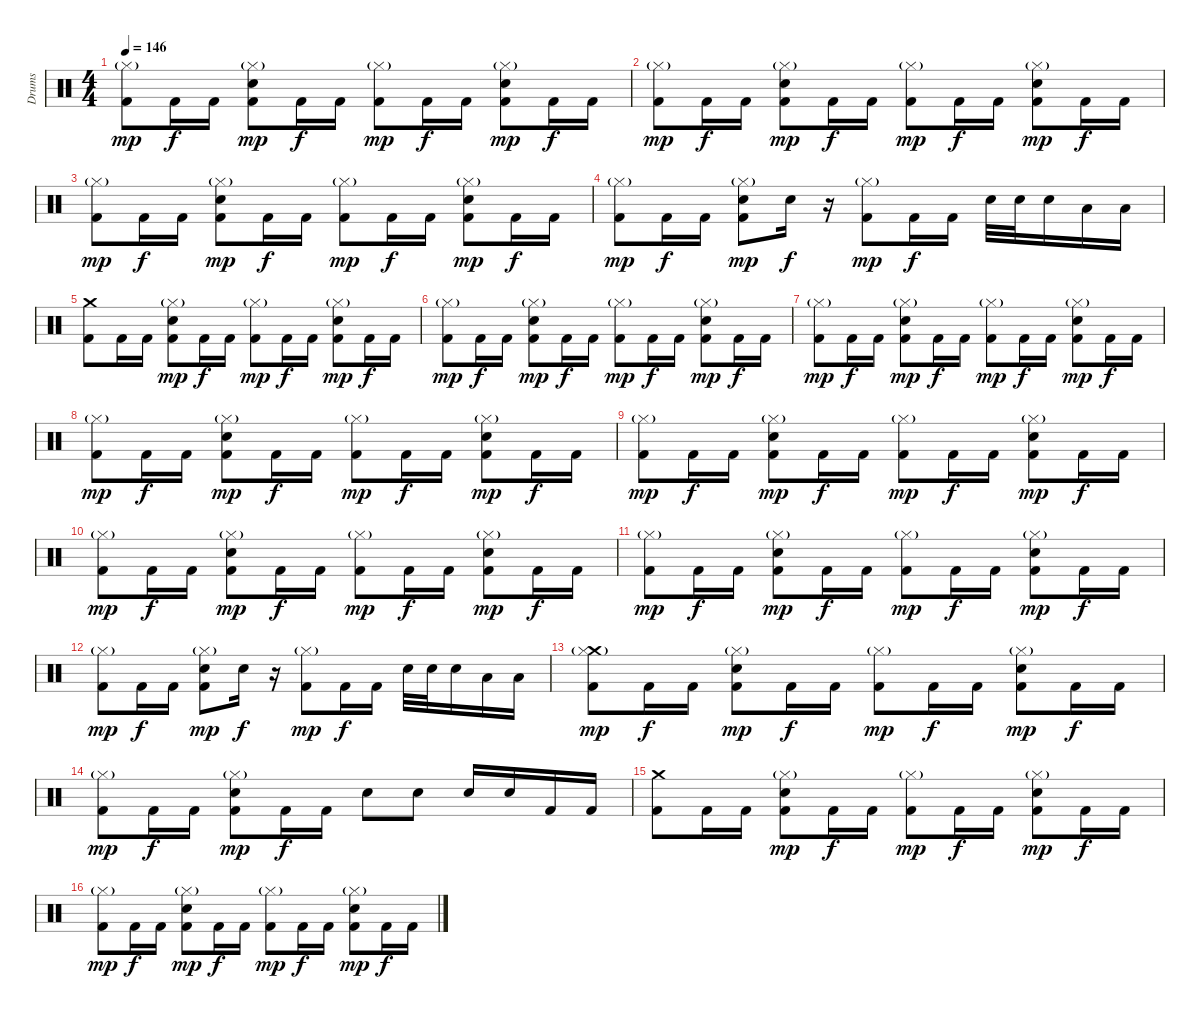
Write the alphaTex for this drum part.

\track ("Drums" "Drums") {instrument percussion}
\staff {score}
\articulation defaults
\ts (4 4)
\tempo 146
\clef neutral
\ks c
("Hi-Hat (closed)"{g} "Kick (hit) 2").8{dy mp} "Kick (hit) 2".16{dy f} "Kick (hit) 2".16 ("Snare (hit) 2" "Hi-Hat (closed)"{g} "Kick (hit) 2").8{dy mp} "Kick (hit) 2".16{dy f} "Kick (hit) 2".16 ("Hi-Hat (closed)"{g} "Kick (hit) 2").8{dy mp} "Kick (hit) 2".16{dy f} "Kick (hit) 2".16 ("Snare (hit) 2" "Hi-Hat (closed)"{g} "Kick (hit) 2").8{dy mp} "Kick (hit) 2".16{dy f} "Kick (hit) 2".16 |
("Hi-Hat (closed)"{g} "Kick (hit) 2").8{dy mp} "Kick (hit) 2".16{dy f} "Kick (hit) 2".16 ("Snare (hit) 2" "Hi-Hat (closed)"{g} "Kick (hit) 2").8{dy mp} "Kick (hit) 2".16{dy f} "Kick (hit) 2".16 ("Hi-Hat (closed)"{g} "Kick (hit) 2").8{dy mp} "Kick (hit) 2".16{dy f} "Kick (hit) 2".16 ("Snare (hit) 2" "Hi-Hat (closed)"{g} "Kick (hit) 2").8{dy mp} "Kick (hit) 2".16{dy f} "Kick (hit) 2".16 |
("Hi-Hat (closed)"{g} "Kick (hit) 2").8{dy mp} "Kick (hit) 2".16{dy f} "Kick (hit) 2".16 ("Snare (hit) 2" "Hi-Hat (closed)"{g} "Kick (hit) 2").8{dy mp} "Kick (hit) 2".16{dy f} "Kick (hit) 2".16 ("Hi-Hat (closed)"{g} "Kick (hit) 2").8{dy mp} "Kick (hit) 2".16{dy f} "Kick (hit) 2".16 ("Snare (hit) 2" "Hi-Hat (closed)"{g} "Kick (hit) 2").8{dy mp} "Kick (hit) 2".16{dy f} "Kick (hit) 2".16 |
("Hi-Hat (closed)"{g} "Kick (hit) 2").8{dy mp} "Kick (hit) 2".16{dy f} "Kick (hit) 2".16 ("Snare (hit) 2" "Hi-Hat (closed)"{g} "Kick (hit) 2").8{dy mp} "Snare (hit) 2".16{dy f} r.16 ("Hi-Hat (closed)"{g} "Kick (hit) 2").8{dy mp} "Kick (hit) 2".16{dy f} "Kick (hit) 2".16 "Snare (hit) 2".32 "Snare (hit) 2".32 "Snare (hit) 2".16 "Low Tom (hit)".16 "Low Tom (hit)".16 |
("Crash medium (hit)" "Kick (hit) 2").8 "Kick (hit) 2".16 "Kick (hit) 2".16 ("Snare (hit) 2" "Hi-Hat (closed)"{g} "Kick (hit) 2").8{dy mp} "Kick (hit) 2".16{dy f} "Kick (hit) 2".16 ("Hi-Hat (closed)"{g} "Kick (hit) 2").8{dy mp} "Kick (hit) 2".16{dy f} "Kick (hit) 2".16 ("Snare (hit) 2" "Hi-Hat (closed)"{g} "Kick (hit) 2").8{dy mp} "Kick (hit) 2".16{dy f} "Kick (hit) 2".16 |
("Hi-Hat (closed)"{g} "Kick (hit) 2").8{dy mp} "Kick (hit) 2".16{dy f} "Kick (hit) 2".16 ("Snare (hit) 2" "Hi-Hat (closed)"{g} "Kick (hit) 2").8{dy mp} "Kick (hit) 2".16{dy f} "Kick (hit) 2".16 ("Hi-Hat (closed)"{g} "Kick (hit) 2").8{dy mp} "Kick (hit) 2".16{dy f} "Kick (hit) 2".16 ("Snare (hit) 2" "Hi-Hat (closed)"{g} "Kick (hit) 2").8{dy mp} "Kick (hit) 2".16{dy f} "Kick (hit) 2".16 |
("Hi-Hat (closed)"{g} "Kick (hit) 2").8{dy mp} "Kick (hit) 2".16{dy f} "Kick (hit) 2".16 ("Snare (hit) 2" "Hi-Hat (closed)"{g} "Kick (hit) 2").8{dy mp} "Kick (hit) 2".16{dy f} "Kick (hit) 2".16 ("Hi-Hat (closed)"{g} "Kick (hit) 2").8{dy mp} "Kick (hit) 2".16{dy f} "Kick (hit) 2".16 ("Snare (hit) 2" "Hi-Hat (closed)"{g} "Kick (hit) 2").8{dy mp} "Kick (hit) 2".16{dy f} "Kick (hit) 2".16 |
("Hi-Hat (closed)"{g} "Kick (hit) 2").8{dy mp} "Kick (hit) 2".16{dy f} "Kick (hit) 2".16 ("Snare (hit) 2" "Hi-Hat (closed)"{g} "Kick (hit) 2").8{dy mp} "Kick (hit) 2".16{dy f} "Kick (hit) 2".16 ("Hi-Hat (closed)"{g} "Kick (hit) 2").8{dy mp} "Kick (hit) 2".16{dy f} "Kick (hit) 2".16 ("Snare (hit) 2" "Hi-Hat (closed)"{g} "Kick (hit) 2").8{dy mp} "Kick (hit) 2".16{dy f} "Kick (hit) 2".16 |
("Hi-Hat (closed)"{g} "Kick (hit) 2").8{dy mp} "Kick (hit) 2".16{dy f} "Kick (hit) 2".16 ("Snare (hit) 2" "Hi-Hat (closed)"{g} "Kick (hit) 2").8{dy mp} "Kick (hit) 2".16{dy f} "Kick (hit) 2".16 ("Hi-Hat (closed)"{g} "Kick (hit) 2").8{dy mp} "Kick (hit) 2".16{dy f} "Kick (hit) 2".16 ("Snare (hit) 2" "Hi-Hat (closed)"{g} "Kick (hit) 2").8{dy mp} "Kick (hit) 2".16{dy f} "Kick (hit) 2".16 |
("Hi-Hat (closed)"{g} "Kick (hit) 2").8{dy mp} "Kick (hit) 2".16{dy f} "Kick (hit) 2".16 ("Snare (hit) 2" "Hi-Hat (closed)"{g} "Kick (hit) 2").8{dy mp} "Kick (hit) 2".16{dy f} "Kick (hit) 2".16 ("Hi-Hat (closed)"{g} "Kick (hit) 2").8{dy mp} "Kick (hit) 2".16{dy f} "Kick (hit) 2".16 ("Snare (hit) 2" "Hi-Hat (closed)"{g} "Kick (hit) 2").8{dy mp} "Kick (hit) 2".16{dy f} "Kick (hit) 2".16 |
("Hi-Hat (closed)"{g} "Kick (hit) 2").8{dy mp} "Kick (hit) 2".16{dy f} "Kick (hit) 2".16 ("Snare (hit) 2" "Hi-Hat (closed)"{g} "Kick (hit) 2").8{dy mp} "Kick (hit) 2".16{dy f} "Kick (hit) 2".16 ("Hi-Hat (closed)"{g} "Kick (hit) 2").8{dy mp} "Kick (hit) 2".16{dy f} "Kick (hit) 2".16 ("Snare (hit) 2" "Hi-Hat (closed)"{g} "Kick (hit) 2").8{dy mp} "Kick (hit) 2".16{dy f} "Kick (hit) 2".16 |
("Hi-Hat (closed)"{g} "Kick (hit) 2").8{dy mp} "Kick (hit) 2".16{dy f} "Kick (hit) 2".16 ("Snare (hit) 2" "Hi-Hat (closed)"{g} "Kick (hit) 2").8{dy mp} "Snare (hit) 2".16{dy f} r.16 ("Hi-Hat (closed)"{g} "Kick (hit) 2").8{dy mp} "Kick (hit) 2".16{dy f} "Kick (hit) 2".16 "Snare (hit) 2".32 "Snare (hit) 2".32 "Snare (hit) 2".16 "Low Tom (hit)".16 "Low Tom (hit)".16 |
("Crash medium (hit)" "Hi-Hat (closed)"{g} "Kick (hit) 2").8{dy mp} "Kick (hit) 2".16{dy f} "Kick (hit) 2".16 ("Snare (hit) 2" "Hi-Hat (closed)"{g} "Kick (hit) 2").8{dy mp} "Kick (hit) 2".16{dy f} "Kick (hit) 2".16 ("Hi-Hat (closed)"{g} "Kick (hit) 2").8{dy mp} "Kick (hit) 2".16{dy f} "Kick (hit) 2".16 ("Snare (hit) 2" "Hi-Hat (closed)"{g} "Kick (hit) 2").8{dy mp} "Kick (hit) 2".16{dy f} "Kick (hit) 2".16 |
("Hi-Hat (closed)"{g} "Kick (hit) 2").8{dy mp} "Kick (hit) 2".16{dy f} "Kick (hit) 2".16 ("Snare (hit) 2" "Hi-Hat (closed)"{g} "Kick (hit) 2").8{dy mp} "Kick (hit) 2".16{dy f} "Kick (hit) 2".16 "Snare (hit) 2".8 "Snare (hit) 2".8 "Snare (hit) 2".16 "Snare (hit) 2".16 "Kick (hit) 2".16 "Kick (hit) 2".16 |
("Crash medium (hit)" "Kick (hit) 2").8 "Kick (hit) 2".16 "Kick (hit) 2".16 ("Snare (hit) 2" "Hi-Hat (closed)"{g} "Kick (hit) 2").8{dy mp} "Kick (hit) 2".16{dy f} "Kick (hit) 2".16 ("Hi-Hat (closed)"{g} "Kick (hit) 2").8{dy mp} "Kick (hit) 2".16{dy f} "Kick (hit) 2".16 ("Snare (hit) 2" "Hi-Hat (closed)"{g} "Kick (hit) 2").8{dy mp} "Kick (hit) 2".16{dy f} "Kick (hit) 2".16 |
("Hi-Hat (closed)"{g} "Kick (hit) 2").8{dy mp} "Kick (hit) 2".16{dy f} "Kick (hit) 2".16 ("Snare (hit) 2" "Hi-Hat (closed)"{g} "Kick (hit) 2").8{dy mp} "Kick (hit) 2".16{dy f} "Kick (hit) 2".16 ("Hi-Hat (closed)"{g} "Kick (hit) 2").8{dy mp} "Kick (hit) 2".16{dy f} "Kick (hit) 2".16 ("Snare (hit) 2" "Hi-Hat (closed)"{g} "Kick (hit) 2").8{dy mp} "Kick (hit) 2".16{dy f} "Kick (hit) 2".16
